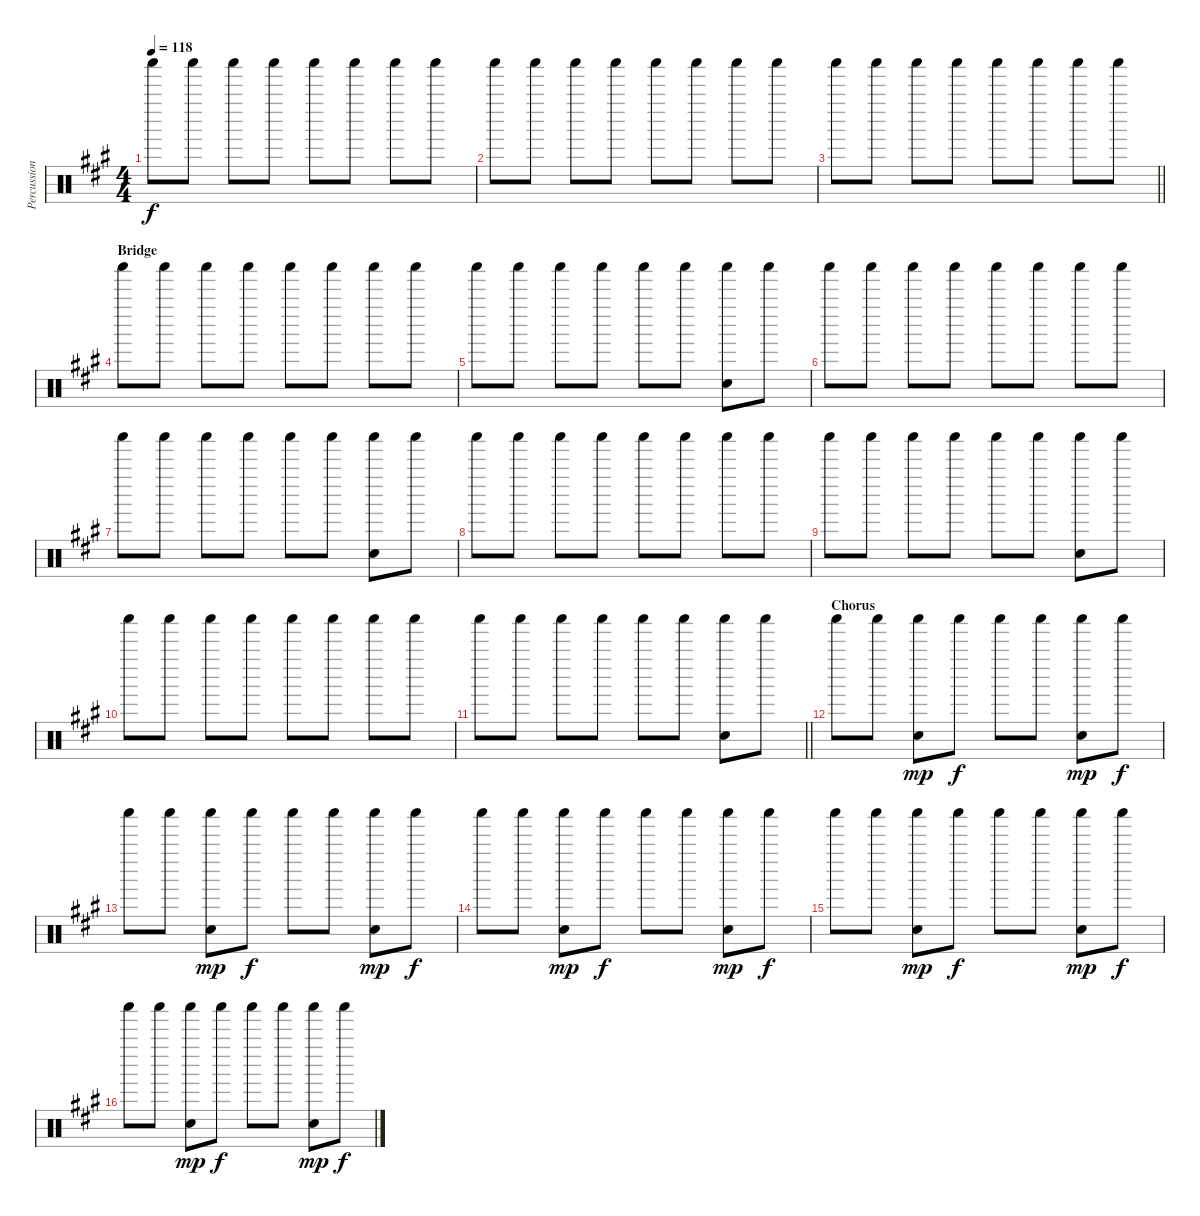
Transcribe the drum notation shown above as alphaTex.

\track ("Percussions" "Percussion") {instrument percussion}
\staff {score}
\articulation defaults
\ts (4 4)
\tempo 118
\clef neutral
\ks f#minor "Shaker (hit)".8{dy f} "Shaker (hit)".8 "Shaker (hit)".8 "Shaker (hit)".8 "Shaker (hit)".8 "Shaker (hit)".8 "Shaker (hit)".8 "Shaker (hit)".8
|
"Shaker (hit)".8 "Shaker (hit)".8 "Shaker (hit)".8 "Shaker (hit)".8 "Shaker (hit)".8 "Shaker (hit)".8 "Shaker (hit)".8 "Shaker (hit)".8 |
\barLineRight lightlight "Shaker (hit)".8 "Shaker (hit)".8 "Shaker (hit)".8 "Shaker (hit)".8 "Shaker (hit)".8 "Shaker (hit)".8 "Shaker (hit)".8 "Shaker (hit)".8
|
\section ("" "Bridge")
"Shaker (hit)".8 "Shaker (hit)".8 "Shaker (hit)".8 "Shaker (hit)".8 "Shaker (hit)".8 "Shaker (hit)".8 "Shaker (hit)".8 "Shaker (hit)".8 |
"Shaker (hit)".8 "Shaker (hit)".8 "Shaker (hit)".8 "Shaker (hit)".8 "Shaker (hit)".8 "Shaker (hit)".8 ("Shaker (hit)" "Hand Clap (hit)").8 "Shaker (hit)".8 |
"Shaker (hit)".8 "Shaker (hit)".8 "Shaker (hit)".8 "Shaker (hit)".8 "Shaker (hit)".8 "Shaker (hit)".8 "Shaker (hit)".8 "Shaker (hit)".8 |
"Shaker (hit)".8 "Shaker (hit)".8 "Shaker (hit)".8 "Shaker (hit)".8 "Shaker (hit)".8 "Shaker (hit)".8 ("Shaker (hit)" "Hand Clap (hit)").8 "Shaker (hit)".8 |
"Shaker (hit)".8 "Shaker (hit)".8 "Shaker (hit)".8 "Shaker (hit)".8 "Shaker (hit)".8 "Shaker (hit)".8 "Shaker (hit)".8 "Shaker (hit)".8 |
"Shaker (hit)".8 "Shaker (hit)".8 "Shaker (hit)".8 "Shaker (hit)".8 "Shaker (hit)".8 "Shaker (hit)".8 ("Shaker (hit)" "Hand Clap (hit)").8 "Shaker (hit)".8 |
"Shaker (hit)".8 "Shaker (hit)".8 "Shaker (hit)".8 "Shaker (hit)".8 "Shaker (hit)".8 "Shaker (hit)".8 "Shaker (hit)".8 "Shaker (hit)".8 |
\barLineRight lightlight "Shaker (hit)".8 "Shaker (hit)".8 "Shaker (hit)".8 "Shaker (hit)".8 "Shaker (hit)".8 "Shaker (hit)".8
("Shaker (hit)" "Hand Clap (hit)").8 "Shaker (hit)".8 |
\section ("" "Chorus")
"Shaker (hit)".8 "Shaker (hit)".8 ("Shaker (hit)" "Hand Clap (hit)").8{dy mp} "Shaker (hit)".8{dy f} "Shaker (hit)".8 "Shaker (hit)".8 ("Shaker (hit)" "Hand Clap (hit)").8{dy mp} "Shaker (hit)".8{dy f} |
"Shaker (hit)".8 "Shaker (hit)".8 ("Shaker (hit)" "Hand Clap (hit)").8{dy mp} "Shaker (hit)".8{dy f} "Shaker (hit)".8 "Shaker (hit)".8 ("Shaker (hit)" "Hand Clap (hit)").8{dy mp} "Shaker (hit)".8{dy f} |
"Shaker (hit)".8 "Shaker (hit)".8 ("Shaker (hit)" "Hand Clap (hit)").8{dy mp} "Shaker (hit)".8{dy f} "Shaker (hit)".8 "Shaker (hit)".8 ("Shaker (hit)" "Hand Clap (hit)").8{dy mp} "Shaker (hit)".8{dy f} |
"Shaker (hit)".8 "Shaker (hit)".8 ("Shaker (hit)" "Hand Clap (hit)").8{dy mp} "Shaker (hit)".8{dy f} "Shaker (hit)".8 "Shaker (hit)".8 ("Shaker (hit)" "Hand Clap (hit)").8{dy mp} "Shaker (hit)".8{dy f} |
"Shaker (hit)".8 "Shaker (hit)".8 ("Shaker (hit)" "Hand Clap (hit)").8{dy mp} "Shaker (hit)".8{dy f} "Shaker (hit)".8 "Shaker (hit)".8 ("Shaker (hit)" "Hand Clap (hit)").8{dy mp} "Shaker (hit)".8{dy f}
